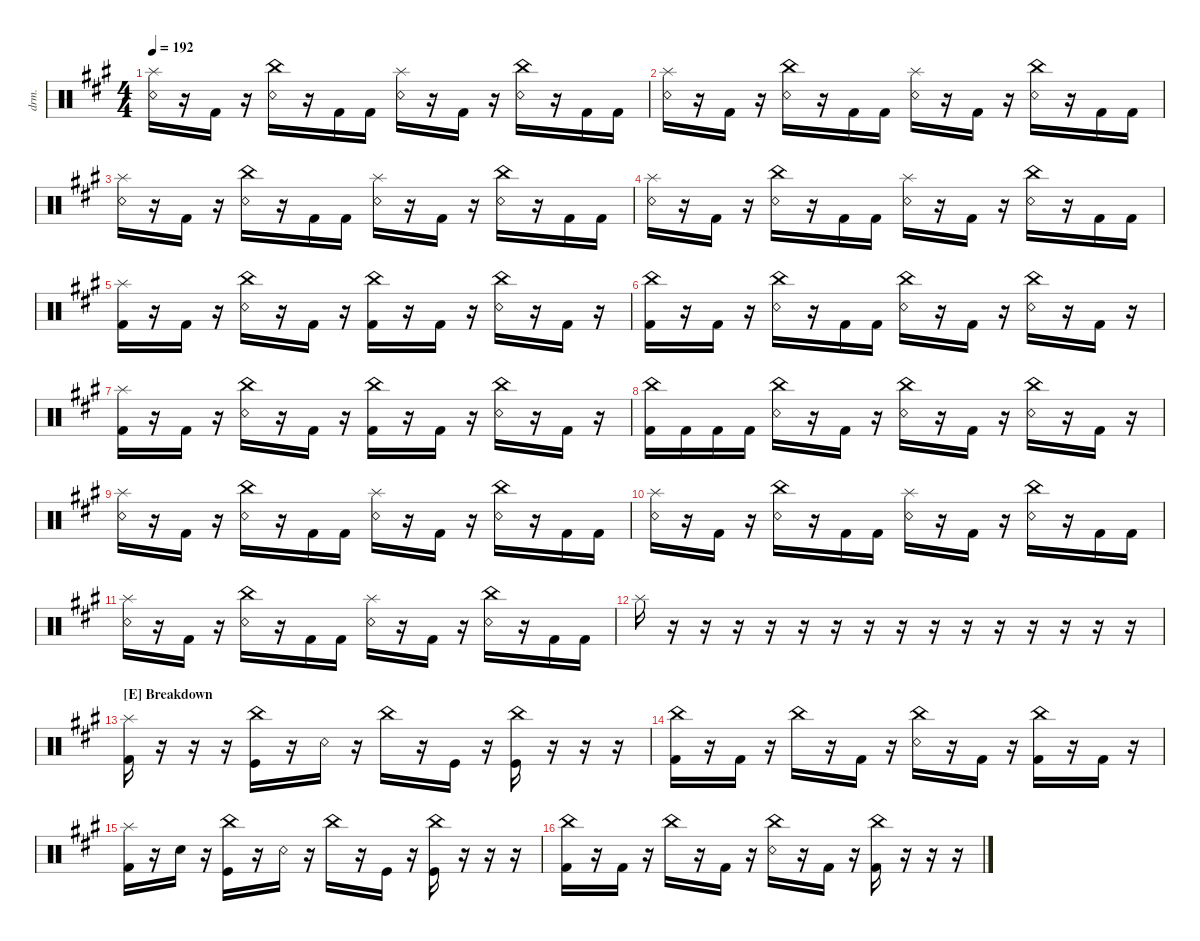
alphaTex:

\defaultSystemsLayout 4
\hideDynamics
\bracketExtendMode nobrackets
\otherSystemsTrackNameOrientation horizontal
\track ("Drumkit" "drm.") {instrument percussion}
\staff {score}
\articulation defaults
\ts (4 4)
\tempo 192
\clef neutral
\ks a
("Snare (rim shot)"{acc forcenatural} "Splash (hit)"{acc forcenatural}).16{dy ff beam Down} r.16{beam Down} "Kick (hit) 2"{acc forcenatural}.16{beam Down} r.16{beam Down} ("China (hit)"{acc forcenatural} "Snare (rim shot)"{acc forcenatural}).16{beam Down} r.16{beam Down} "Kick (hit) 2"{acc forcenatural}.16{beam Down} "Kick (hit) 2"{acc forcenatural}.16{beam Down} ("Snare (rim shot)"{acc forcenatural} "Splash (hit)"{acc forcenatural}).16{beam Down} r.16{beam Down} "Kick (hit) 2"{acc forcenatural}.16{beam Down} r.16{beam Down} ("China (hit)"{acc forcenatural} "Snare (rim shot)"{acc forcenatural}).16{beam Down} r.16{beam Down} "Kick (hit) 2"{acc forcenatural}.16{beam Down} "Kick (hit) 2"{acc forcenatural}.16{beam Down} |
("Snare (rim shot)"{acc forcenatural} "Splash (hit)"{acc forcenatural}).16{beam Down} r.16{beam Down} "Kick (hit) 2"{acc forcenatural}.16{beam Down} r.16{beam Down} ("China (hit)"{acc forcenatural} "Snare (rim shot)"{acc forcenatural}).16{beam Down} r.16{beam Down} "Kick (hit) 2"{acc forcenatural}.16{beam Down} "Kick (hit) 2"{acc forcenatural}.16{beam Down} ("Snare (rim shot)"{acc forcenatural} "Splash (hit)"{acc forcenatural}).16{beam Down} r.16{beam Down} "Kick (hit) 2"{acc forcenatural}.16{beam Down} r.16{beam Down} ("China (hit)"{acc forcenatural} "Snare (rim shot)"{acc forcenatural}).16{beam Down} r.16{beam Down} "Kick (hit) 2"{acc forcenatural}.16{beam Down} "Kick (hit) 2"{acc forcenatural}.16{beam Down} |
("Snare (rim shot)"{acc forcenatural} "Splash (hit)"{acc forcenatural}).16{beam Down} r.16{beam Down} "Kick (hit) 2"{acc forcenatural}.16{beam Down} r.16{beam Down} ("China (hit)"{acc forcenatural} "Snare (rim shot)"{acc forcenatural}).16{beam Down} r.16{beam Down} "Kick (hit) 2"{acc forcenatural}.16{beam Down} "Kick (hit) 2"{acc forcenatural}.16{beam Down} ("Snare (rim shot)"{acc forcenatural} "Splash (hit)"{acc forcenatural}).16{beam Down} r.16{beam Down} "Kick (hit) 2"{acc forcenatural}.16{beam Down} r.16{beam Down} ("China (hit)"{acc forcenatural} "Snare (rim shot)"{acc forcenatural}).16{beam Down} r.16{beam Down} "Kick (hit) 2"{acc forcenatural}.16{beam Down} "Kick (hit) 2"{acc forcenatural}.16{beam Down} |
("Snare (rim shot)"{acc forcenatural} "Splash (hit)"{acc forcenatural}).16{beam Down} r.16{beam Down} "Kick (hit) 2"{acc forcenatural}.16{beam Down} r.16{beam Down} ("China (hit)"{acc forcenatural} "Snare (rim shot)"{acc forcenatural}).16{beam Down} r.16{beam Down} "Kick (hit) 2"{acc forcenatural}.16{beam Down} "Kick (hit) 2"{acc forcenatural}.16{beam Down} ("Snare (rim shot)"{acc forcenatural} "Splash (hit)"{acc forcenatural}).16{beam Down} r.16{beam Down} "Kick (hit) 2"{acc forcenatural}.16{beam Down} r.16{beam Down} ("China (hit)"{acc forcenatural} "Snare (rim shot)"{acc forcenatural}).16{beam Down} r.16{beam Down} "Kick (hit) 2"{acc forcenatural}.16{beam Down} "Kick (hit) 2"{acc forcenatural}.16{beam Down} |
("Kick (hit) 2"{acc forcenatural} "Splash (hit)"{acc forcenatural}).16{beam Down} r.16{beam Down} "Kick (hit) 2"{acc forcenatural}.16{beam Down} r.16{beam Down} ("China (hit)"{acc forcenatural} "Snare (rim shot)"{acc forcenatural}).16{beam Down} r.16{beam Down} "Kick (hit) 2"{acc forcenatural}.16{beam Down} r.16{beam Down} ("China (hit)"{acc forcenatural} "Kick (hit) 2"{acc forcenatural}).16{beam Down} r.16{beam Down} "Kick (hit) 2"{acc forcenatural}.16{beam Down} r.16{beam Down} ("China (hit)"{acc forcenatural} "Snare (rim shot)"{acc forcenatural}).16{beam Down} r.16{beam Down} "Kick (hit) 2"{acc forcenatural}.16{beam Down} r.16{beam Down} |
("Kick (hit) 2"{acc forcenatural} "China (hit)"{acc forcenatural}).16{beam Down} r.16{beam Down} "Kick (hit) 2"{acc forcenatural}.16{beam Down} r.16{beam Down} ("China (hit)"{acc forcenatural} "Snare (rim shot)"{acc forcenatural}).16{beam Down} r.16{beam Down} "Kick (hit) 2"{acc forcenatural}.16{beam Down} "Kick (hit) 2"{acc forcenatural}.16{beam Down} ("China (hit)"{acc forcenatural} "Snare (rim shot)"{acc forcenatural}).16{beam Down} r.16{beam Down} "Kick (hit) 2"{acc forcenatural}.16{beam Down} r.16{beam Down} ("China (hit)"{acc forcenatural} "Snare (rim shot)"{acc forcenatural}).16{beam Down} r.16{beam Down} "Kick (hit) 2"{acc forcenatural}.16{beam Down} r.16{beam Down} |
("Kick (hit) 2"{acc forcenatural} "Splash (hit)"{acc forcenatural}).16{beam Down} r.16{beam Down} "Kick (hit) 2"{acc forcenatural}.16{beam Down} r.16{beam Down} ("China (hit)"{acc forcenatural} "Snare (rim shot)"{acc forcenatural}).16{beam Down} r.16{beam Down} "Kick (hit) 2"{acc forcenatural}.16{beam Down} r.16{beam Down} ("China (hit)"{acc forcenatural} "Kick (hit) 2"{acc forcenatural}).16{beam Down} r.16{beam Down} "Kick (hit) 2"{acc forcenatural}.16{beam Down} r.16{beam Down} ("China (hit)"{acc forcenatural} "Snare (rim shot)"{acc forcenatural}).16{beam Down} r.16{beam Down} "Kick (hit) 2"{acc forcenatural}.16{beam Down} r.16{beam Down} |
("Kick (hit) 2"{acc forcenatural} "China (hit)"{acc forcenatural}).16{beam Down} "Kick (hit) 2"{acc forcenatural}.16{beam Down} "Kick (hit) 2"{acc forcenatural}.16{beam Down} "Kick (hit) 2"{acc forcenatural}.16{beam Down} ("China (hit)"{acc forcenatural} "Snare (rim shot)"{acc forcenatural}).16{beam Down} r.16{beam Down} "Kick (hit) 2"{acc forcenatural}.16{beam Down} r.16{beam Down} ("China (hit)"{acc forcenatural} "Snare (rim shot)"{acc forcenatural}).16{beam Down} r.16{beam Down} "Kick (hit) 2"{acc forcenatural}.16{beam Down} r.16{beam Down} ("China (hit)"{acc forcenatural} "Snare (rim shot)"{acc forcenatural}).16{beam Down} r.16{beam Down} "Kick (hit) 2"{acc forcenatural}.16{beam Down} r.16{beam Down} |
("Snare (rim shot)"{acc forcenatural} "Splash (hit)"{acc forcenatural}).16{beam Down} r.16{beam Down} "Kick (hit) 2"{acc forcenatural}.16{beam Down} r.16{beam Down} ("China (hit)"{acc forcenatural} "Snare (rim shot)"{acc forcenatural}).16{beam Down} r.16{beam Down} "Kick (hit) 2"{acc forcenatural}.16{beam Down} "Kick (hit) 2"{acc forcenatural}.16{beam Down} ("Snare (rim shot)"{acc forcenatural} "Splash (hit)"{acc forcenatural}).16{beam Down} r.16{beam Down} "Kick (hit) 2"{acc forcenatural}.16{beam Down} r.16{beam Down} ("China (hit)"{acc forcenatural} "Snare (rim shot)"{acc forcenatural}).16{beam Down} r.16{beam Down} "Kick (hit) 2"{acc forcenatural}.16{beam Down} "Kick (hit) 2"{acc forcenatural}.16{beam Down} |
("Snare (rim shot)"{acc forcenatural} "Splash (hit)"{acc forcenatural}).16{beam Down} r.16{beam Down} "Kick (hit) 2"{acc forcenatural}.16{beam Down} r.16{beam Down} ("China (hit)"{acc forcenatural} "Snare (rim shot)"{acc forcenatural}).16{beam Down} r.16{beam Down} "Kick (hit) 2"{acc forcenatural}.16{beam Down} "Kick (hit) 2"{acc forcenatural}.16{beam Down} ("Snare (rim shot)"{acc forcenatural} "Splash (hit)"{acc forcenatural}).16{beam Down} r.16{beam Down} "Kick (hit) 2"{acc forcenatural}.16{beam Down} r.16{beam Down} ("China (hit)"{acc forcenatural} "Snare (rim shot)"{acc forcenatural}).16{beam Down} r.16{beam Down} "Kick (hit) 2"{acc forcenatural}.16{beam Down} "Kick (hit) 2"{acc forcenatural}.16{beam Down} |
("Snare (rim shot)"{acc forcenatural} "Splash (hit)"{acc forcenatural}).16{beam Down} r.16{beam Down} "Kick (hit) 2"{acc forcenatural}.16{beam Down} r.16{beam Down} ("China (hit)"{acc forcenatural} "Snare (rim shot)"{acc forcenatural}).16{beam Down} r.16{beam Down} "Kick (hit) 2"{acc forcenatural}.16{beam Down} "Kick (hit) 2"{acc forcenatural}.16{beam Down} ("Snare (rim shot)"{acc forcenatural} "Splash (hit)"{acc forcenatural}).16{beam Down} r.16{beam Down} "Kick (hit) 2"{acc forcenatural}.16{beam Down} r.16{beam Down} ("China (hit)"{acc forcenatural} "Snare (rim shot)"{acc forcenatural}).16{beam Down} r.16{beam Down} "Kick (hit) 2"{acc forcenatural}.16{beam Down} "Kick (hit) 2"{acc forcenatural}.16{beam Down} |
"Splash (hit)"{acc forcenatural}.16{beam Down} r.16{beam Down} r.16{beam Down} r.16{beam Down} r.16{beam Down} r.16{beam Down} r.16{beam Down} r.16{beam Down} r.16{beam Down} r.16{beam Down} r.16{beam Down} r.16{beam Down} r.16{beam Down} r.16{beam Down} r.16{beam Down} r.16{beam Down} |
\section ("E" "Breakdown")
("Kick (hit) 2"{acc forcenatural} "Splash (hit)"{acc forcenatural}).16{beam Down} r.16{beam Down} r.16{beam Down} r.16{beam Down} ("China (hit)"{acc forcenatural} "Kick (hit)"{acc forcenatural}).16{beam Down} r.16{beam Down} "Snare (rim shot)"{acc forcenatural}.16{beam Down} r.16{beam Down} "China (hit)"{acc forcenatural}.16{beam Down} r.16{beam Down} "Kick (hit)"{acc forcenatural}.16{beam Down} r.16{beam Down} ("China (hit)"{acc forcenatural} "Kick (hit)"{acc forcenatural}).16{beam Down} r.16{beam Down} r.16{beam Down} r.16{beam Down} |
("Kick (hit) 2"{acc forcenatural} "China (hit)"{acc forcenatural}).16{beam Down} r.16{beam Down} "Kick (hit) 2"{acc forcenatural}.16{beam Down} r.16{beam Down} "China (hit)"{acc forcenatural}.16{beam Down} r.16{beam Down} "Kick (hit) 2"{acc forcenatural}.16{beam Down} r.16{beam Down} ("Snare (rim shot)"{acc forcenatural} "China (hit)"{acc forcenatural}).16{beam Down} r.16{beam Down} "Kick (hit) 2"{acc forcenatural}.16{beam Down} r.16{beam Down} ("Kick (hit) 2"{acc forcenatural} "China (hit)"{acc forcenatural}).16{beam Down} r.16{beam Down} "Kick (hit) 2"{acc forcenatural}.16{beam Down} r.16{beam Down} |
("Kick (hit) 2"{acc forcenatural} "Splash (hit)"{acc forcenatural}).16{beam Down} r.16{beam Down} "Snare (hit) 2"{acc forcenatural}.16{dy p beam Down} r.16{beam Down} ("China (hit)"{acc forcenatural} "Kick (hit)"{acc forcenatural}).16{dy ff beam Down} r.16{beam Down} "Snare (rim shot)"{acc forcenatural}.16{beam Down} r.16{beam Down} "China (hit)"{acc forcenatural}.16{beam Down} r.16{beam Down} "Kick (hit)"{acc forcenatural}.16{beam Down} r.16{beam Down} ("China (hit)"{acc forcenatural} "Kick (hit)"{acc forcenatural}).16{beam Down} r.16{beam Down} r.16{beam Down} r.16{beam Down} |
("Kick (hit) 2"{acc forcenatural} "China (hit)"{acc forcenatural}).16{beam Down} r.16{beam Down} "Kick (hit) 2"{acc forcenatural}.16{beam Down} r.16{beam Down} "China (hit)"{acc forcenatural}.16{beam Down} r.16{beam Down} "Kick (hit) 2"{acc forcenatural}.16{beam Down} r.16{beam Down} ("Snare (rim shot)"{acc forcenatural} "China (hit)"{acc forcenatural}).16{beam Down} r.16{beam Down} "Kick (hit) 2"{acc forcenatural}.16{beam Down} r.16{beam Down} ("Kick (hit) 2"{acc forcenatural} "China (hit)"{acc forcenatural}).16{beam Down} r.16{beam Down} r.16{beam Down} r.16{beam Down}
